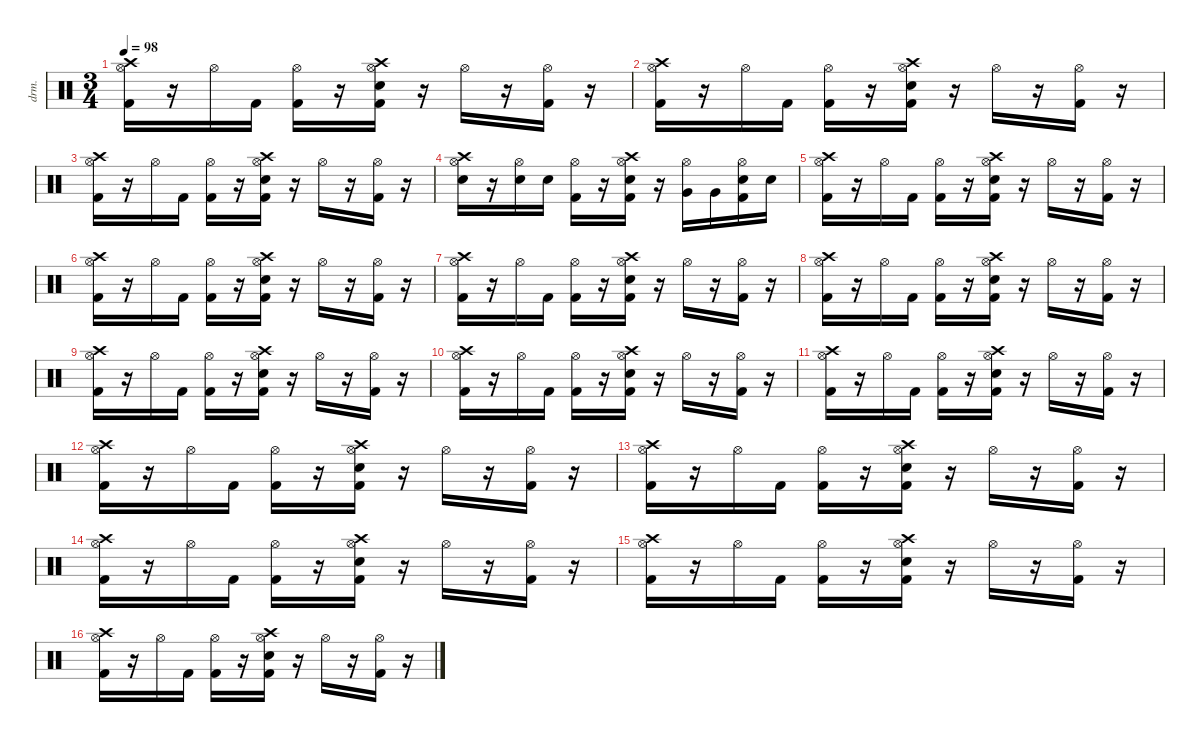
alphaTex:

\defaultSystemsLayout 4
\hideDynamics
\bracketExtendMode nobrackets
\otherSystemsTrackNameOrientation horizontal
\track ("Ударные" "drm.") {instrument percussion}
\staff {score}
\articulation defaults
\ts (3 4)
\tempo 98
\clef neutral
\ks c
("Crash high (hit)" "Kick (hit) 2" "Hi-Hat (open)").16{dy fff beam Down} r.16{beam Down} "Hi-Hat (open)".16{dy f beam Down} "Kick (hit) 2".16{dy mf beam Down} ("Kick (hit) 2" "Hi-Hat (open)").16{dy f beam Down} r.16{beam Down} ("Crash high (hit)" "Snare (hit) 2" "Kick (hit) 2" "Hi-Hat (open)").16{beam Down} r.16{beam Down} "Hi-Hat (open)".16{beam Down} r.16{beam Down} ("Kick (hit) 2" "Hi-Hat (open)").16{beam Down} r.16{beam Down} |
("Crash high (hit)" "Kick (hit) 2" "Hi-Hat (open)").16{dy fff beam Down} r.16{beam Down} "Hi-Hat (open)".16{dy f beam Down} "Kick (hit) 2".16{beam Down} ("Kick (hit) 2" "Hi-Hat (open)").16{beam Down} r.16{beam Down} ("Crash high (hit)" "Snare (hit) 2" "Kick (hit) 2" "Hi-Hat (open)").16{beam Down} r.16{beam Down} "Hi-Hat (open)".16{beam Down} r.16{beam Down} ("Kick (hit) 2" "Hi-Hat (open)").16{beam Down} r.16{beam Down} |
("Crash high (hit)" "Kick (hit) 2" "Hi-Hat (open)").16{dy fff beam Down} r.16{beam Down} "Hi-Hat (open)".16{dy f beam Down} "Kick (hit) 2".16{beam Down} ("Kick (hit) 2" "Hi-Hat (open)").16{beam Down} r.16{beam Down} ("Crash high (hit)" "Snare (hit) 2" "Kick (hit) 2" "Hi-Hat (open)").16{beam Down} r.16{beam Down} "Hi-Hat (open)".16{beam Down} r.16{beam Down} ("Kick (hit) 2" "Hi-Hat (open)").16{beam Down} r.16{beam Down} |
("Crash high (hit)" "Snare (hit) 2" "Hi-Hat (open)").16{dy fff beam Down} r.16{beam Down} ("Snare (hit) 2" "Hi-Hat (open)").16{dy f beam Down} "Snare (hit) 2".16{beam Down} ("Kick (hit) 2" "Hi-Hat (open)").16{beam Down} r.16{beam Down} ("Crash high (hit)" "Snare (hit) 2" "Kick (hit) 2" "Hi-Hat (open)").16{beam Down} r.16{beam Down} ("Very Low Tom (hit)" "Hi-Hat (open)").16{beam Down} "Very Low Tom (hit)".16{beam Down} ("Snare (hit) 2" "Kick (hit) 2" "Hi-Hat (open)").16{beam Down} "Snare (hit) 2".16{beam Down} |
("Crash high (hit)" "Kick (hit) 2" "Hi-Hat (open)").16{dy fff beam Down} r.16{beam Down} "Hi-Hat (open)".16{dy f beam Down} "Kick (hit) 2".16{dy mf beam Down} ("Kick (hit) 2" "Hi-Hat (open)").16{dy f beam Down} r.16{beam Down} ("Crash high (hit)" "Snare (hit) 2" "Kick (hit) 2" "Hi-Hat (open)").16{beam Down} r.16{beam Down} "Hi-Hat (open)".16{beam Down} r.16{beam Down} ("Kick (hit) 2" "Hi-Hat (open)").16{beam Down} r.16{beam Down} |
("Crash high (hit)" "Kick (hit) 2" "Hi-Hat (open)").16{dy fff beam Down} r.16{beam Down} "Hi-Hat (open)".16{dy f beam Down} "Kick (hit) 2".16{beam Down} ("Kick (hit) 2" "Hi-Hat (open)").16{beam Down} r.16{beam Down} ("Crash high (hit)" "Snare (hit) 2" "Kick (hit) 2" "Hi-Hat (open)").16{beam Down} r.16{beam Down} "Hi-Hat (open)".16{beam Down} r.16{beam Down} ("Kick (hit) 2" "Hi-Hat (open)").16{beam Down} r.16{beam Down} |
("Crash high (hit)" "Kick (hit) 2" "Hi-Hat (open)").16{dy fff beam Down} r.16{beam Down} "Hi-Hat (open)".16{dy f beam Down} "Kick (hit) 2".16{beam Down} ("Kick (hit) 2" "Hi-Hat (open)").16{beam Down} r.16{beam Down} ("Crash high (hit)" "Snare (hit) 2" "Kick (hit) 2" "Hi-Hat (open)").16{beam Down} r.16{beam Down} "Hi-Hat (open)".16{beam Down} r.16{beam Down} ("Kick (hit) 2" "Hi-Hat (open)").16{beam Down} r.16{beam Down} |
("Crash high (hit)" "Kick (hit) 2" "Hi-Hat (open)").16{dy fff beam Down} r.16{beam Down} "Hi-Hat (open)".16{dy f beam Down} "Kick (hit) 2".16{dy mf beam Down} ("Kick (hit) 2" "Hi-Hat (open)").16{dy f beam Down} r.16{beam Down} ("Crash high (hit)" "Snare (hit) 2" "Kick (hit) 2" "Hi-Hat (open)").16{beam Down} r.16{beam Down} "Hi-Hat (open)".16{beam Down} r.16{beam Down} ("Kick (hit) 2" "Hi-Hat (open)").16{beam Down} r.16{beam Down} |
("Crash high (hit)" "Kick (hit) 2" "Hi-Hat (open)").16{dy fff beam Down} r.16{beam Down} "Hi-Hat (open)".16{dy f beam Down} "Kick (hit) 2".16{dy mf beam Down} ("Kick (hit) 2" "Hi-Hat (open)").16{dy f beam Down} r.16{beam Down} ("Crash high (hit)" "Snare (hit) 2" "Kick (hit) 2" "Hi-Hat (open)").16{beam Down} r.16{beam Down} "Hi-Hat (open)".16{beam Down} r.16{beam Down} ("Kick (hit) 2" "Hi-Hat (open)").16{beam Down} r.16{beam Down} |
("Crash high (hit)" "Kick (hit) 2" "Hi-Hat (open)").16{dy fff beam Down} r.16{beam Down} "Hi-Hat (open)".16{dy f beam Down} "Kick (hit) 2".16{beam Down} ("Kick (hit) 2" "Hi-Hat (open)").16{beam Down} r.16{beam Down} ("Crash high (hit)" "Snare (hit) 2" "Kick (hit) 2" "Hi-Hat (open)").16{beam Down} r.16{beam Down} "Hi-Hat (open)".16{beam Down} r.16{beam Down} ("Kick (hit) 2" "Hi-Hat (open)").16{beam Down} r.16{beam Down} |
("Crash high (hit)" "Kick (hit) 2" "Hi-Hat (open)").16{dy fff beam Down} r.16{beam Down} "Hi-Hat (open)".16{dy f beam Down} "Kick (hit) 2".16{beam Down} ("Kick (hit) 2" "Hi-Hat (open)").16{beam Down} r.16{beam Down} ("Crash high (hit)" "Snare (hit) 2" "Kick (hit) 2" "Hi-Hat (open)").16{beam Down} r.16{beam Down} "Hi-Hat (open)".16{beam Down} r.16{beam Down} ("Kick (hit) 2" "Hi-Hat (open)").16{beam Down} r.16{beam Down} |
("Crash high (hit)" "Kick (hit) 2" "Hi-Hat (open)").16{dy fff beam Down} r.16{beam Down} "Hi-Hat (open)".16{dy f beam Down} "Kick (hit) 2".16{dy mf beam Down} ("Kick (hit) 2" "Hi-Hat (open)").16{dy f beam Down} r.16{beam Down} ("Crash high (hit)" "Snare (hit) 2" "Kick (hit) 2" "Hi-Hat (open)").16{beam Down} r.16{beam Down} "Hi-Hat (open)".16{beam Down} r.16{beam Down} ("Kick (hit) 2" "Hi-Hat (open)").16{beam Down} r.16{beam Down} |
("Crash high (hit)" "Kick (hit) 2" "Hi-Hat (open)").16{dy fff beam Down} r.16{beam Down} "Hi-Hat (open)".16{dy f beam Down} "Kick (hit) 2".16{dy mf beam Down} ("Kick (hit) 2" "Hi-Hat (open)").16{dy f beam Down} r.16{beam Down} ("Crash high (hit)" "Snare (hit) 2" "Kick (hit) 2" "Hi-Hat (open)").16{beam Down} r.16{beam Down} "Hi-Hat (open)".16{beam Down} r.16{beam Down} ("Kick (hit) 2" "Hi-Hat (open)").16{beam Down} r.16{beam Down} |
("Crash high (hit)" "Kick (hit) 2" "Hi-Hat (open)").16{dy fff beam Down} r.16{beam Down} "Hi-Hat (open)".16{dy f beam Down} "Kick (hit) 2".16{beam Down} ("Kick (hit) 2" "Hi-Hat (open)").16{beam Down} r.16{beam Down} ("Crash high (hit)" "Snare (hit) 2" "Kick (hit) 2" "Hi-Hat (open)").16{beam Down} r.16{beam Down} "Hi-Hat (open)".16{beam Down} r.16{beam Down} ("Kick (hit) 2" "Hi-Hat (open)").16{beam Down} r.16{beam Down} |
("Crash high (hit)" "Kick (hit) 2" "Hi-Hat (open)").16{dy fff beam Down} r.16{beam Down} "Hi-Hat (open)".16{dy f beam Down} "Kick (hit) 2".16{beam Down} ("Kick (hit) 2" "Hi-Hat (open)").16{beam Down} r.16{beam Down} ("Crash high (hit)" "Snare (hit) 2" "Kick (hit) 2" "Hi-Hat (open)").16{beam Down} r.16{beam Down} "Hi-Hat (open)".16{beam Down} r.16{beam Down} ("Kick (hit) 2" "Hi-Hat (open)").16{beam Down} r.16{beam Down} |
("Crash high (hit)" "Kick (hit) 2" "Hi-Hat (open)").16{dy fff beam Down} r.16{beam Down} "Hi-Hat (open)".16{dy f beam Down} "Kick (hit) 2".16{dy mf beam Down} ("Kick (hit) 2" "Hi-Hat (open)").16{dy f beam Down} r.16{beam Down} ("Crash high (hit)" "Snare (hit) 2" "Kick (hit) 2" "Hi-Hat (open)").16{beam Down} r.16{beam Down} "Hi-Hat (open)".16{beam Down} r.16{beam Down} ("Kick (hit) 2" "Hi-Hat (open)").16{beam Down} r.16{beam Down}
